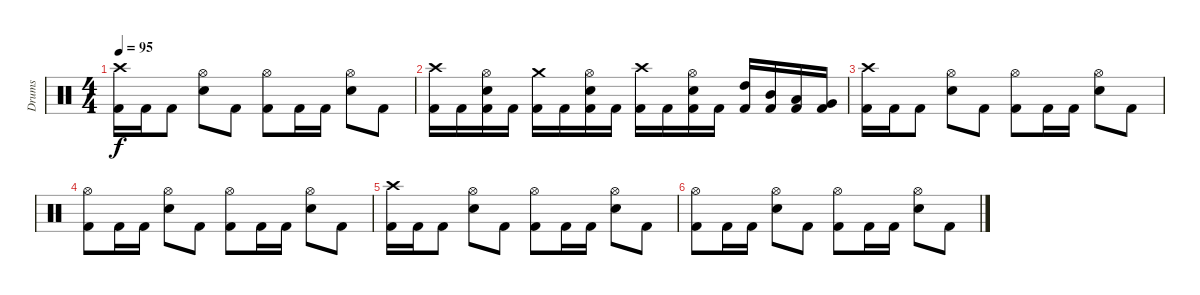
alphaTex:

\track ("Drums" "Drums") {instrument percussion}
\staff {score}
\articulation defaults
\ts (4 4)
\tempo 95
\clef neutral
\ks c
("Crash high (hit)" "Kick (hit) 2").16{dy f} "Kick (hit) 2".16 "Kick (hit) 2".8 ("Hi-Hat (open)" "Electric Snare (hit)").8 "Kick (hit) 2".8 ("Hi-Hat (open)" "Kick (hit) 2").8 "Kick (hit) 2".16 "Kick (hit) 2".16 ("Hi-Hat (open)" "Electric Snare (hit)").8 "Kick (hit) 2".8 |
("Crash high (hit)" "Kick (hit) 2").16 "Kick (hit) 2".16 ("Hi-Hat (open)" "Electric Snare (hit)" "Kick (hit) 2").16 "Kick (hit) 2".16 ("Crash medium (hit)" "Kick (hit) 2").16 "Kick (hit) 2".16 ("Hi-Hat (open)" "Electric Snare (hit)" "Kick (hit) 2").16 "Kick (hit) 2".16 ("Crash high (hit)" "Kick (hit) 2").16 "Kick (hit) 2".16 ("Hi-Hat (open)" "Electric Snare (hit)" "Kick (hit) 2").16 "Kick (hit) 2".16 ("High Tom (hit)" "Kick (hit) 2").16 ("Mid Tom (hit)" "Kick (hit) 2").16 ("Low Tom (hit)" "Kick (hit) 2").16 ("Very Low Tom (hit)" "Kick (hit) 2").16 |
("Crash high (hit)" "Kick (hit) 2").16{volume 1} "Kick (hit) 2".16 "Kick (hit) 2".8 ("Hi-Hat (open)" "Electric Snare (hit)").8 "Kick (hit) 2".8 ("Hi-Hat (open)" "Kick (hit) 2").8 "Kick (hit) 2".16 "Kick (hit) 2".16 ("Hi-Hat (open)" "Electric Snare (hit)").8 "Kick (hit) 2".8 |
("Hi-Hat (open)" "Kick (hit) 2").8 "Kick (hit) 2".16 "Kick (hit) 2".16 ("Hi-Hat (open)" "Electric Snare (hit)").8 "Kick (hit) 2".8 ("Hi-Hat (open)" "Kick (hit) 2").8 "Kick (hit) 2".16 "Kick (hit) 2".16 ("Hi-Hat (open)" "Electric Snare (hit)").8 "Kick (hit) 2".8 |
("Crash high (hit)" "Kick (hit) 2").16 "Kick (hit) 2".16 "Kick (hit) 2".8 ("Hi-Hat (open)" "Electric Snare (hit)").8 "Kick (hit) 2".8 ("Hi-Hat (open)" "Kick (hit) 2").8 "Kick (hit) 2".16 "Kick (hit) 2".16 ("Hi-Hat (open)" "Electric Snare (hit)").8 "Kick (hit) 2".8 |
("Hi-Hat (open)" "Kick (hit) 2").8 "Kick (hit) 2".16 "Kick (hit) 2".16 ("Hi-Hat (open)" "Electric Snare (hit)").8 "Kick (hit) 2".8 ("Hi-Hat (open)" "Kick (hit) 2").8 "Kick (hit) 2".16 "Kick (hit) 2".16 ("Hi-Hat (open)" "Electric Snare (hit)").8{volume 0} "Kick (hit) 2".8
